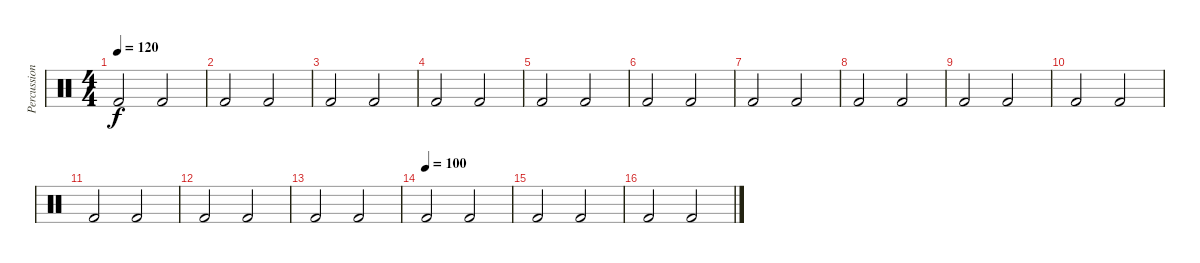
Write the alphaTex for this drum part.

\track ("Percussion" "Percussion") {mute instrument percussion}
\staff {score}
\articulation defaults
\ts (4 4)
\tempo 120
\clef neutral
\ks c "Kick (hit) 2".2{dy f} "Kick (hit) 2".2
|
"Kick (hit) 2".2 "Kick (hit) 2".2 |
"Kick (hit) 2".2 "Kick (hit) 2".2 |
"Kick (hit) 2".2 "Kick (hit) 2".2 |
"Kick (hit) 2".2 "Kick (hit) 2".2 |
"Kick (hit) 2".2 "Kick (hit) 2".2 |
"Kick (hit) 2".2 "Kick (hit) 2".2 |
"Kick (hit) 2".2 "Kick (hit) 2".2 |
"Kick (hit) 2".2 "Kick (hit) 2".2 |
"Kick (hit) 2".2 "Kick (hit) 2".2 |
"Kick (hit) 2".2 "Kick (hit) 2".2 |
"Kick (hit) 2".2 "Kick (hit) 2".2 |
"Kick (hit) 2".2 "Kick (hit) 2".2 |
\tempo (100)
"Kick (hit) 2".2 "Kick (hit) 2".2 |
"Kick (hit) 2".2 "Kick (hit) 2".2 |
"Kick (hit) 2".2 "Kick (hit) 2".2
